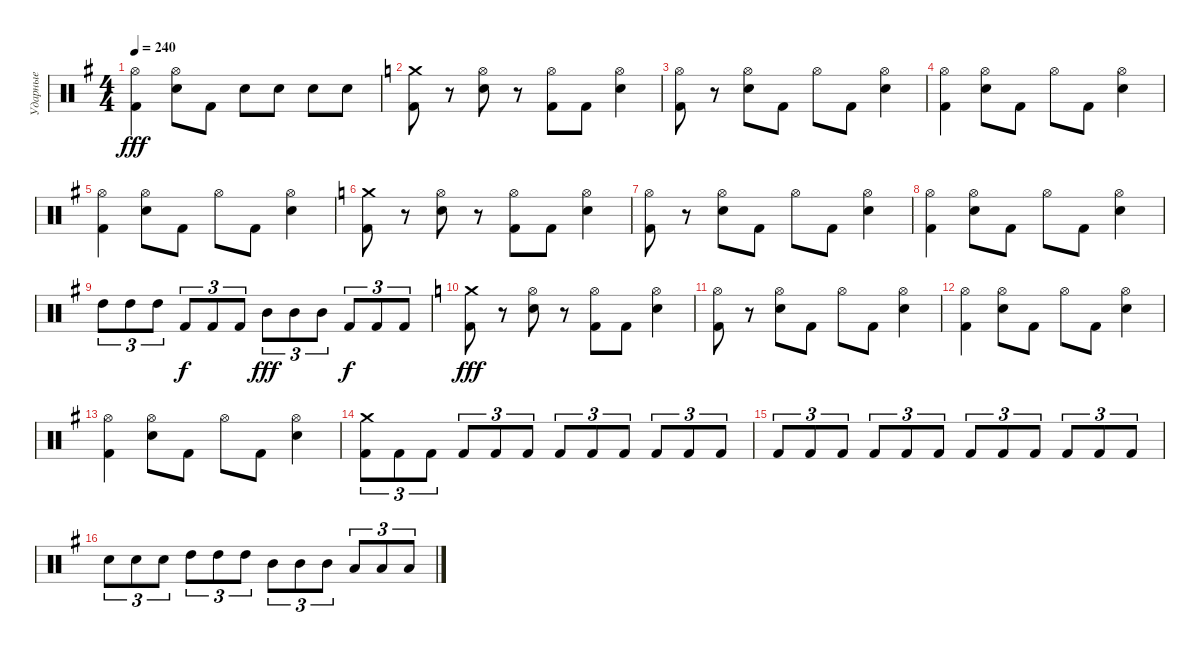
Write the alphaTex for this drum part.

\track ("Ударные" "Ударные") {instrument percussion}
\staff {score}
\articulation defaults
\ts (4 4)
\tempo 240
\clef neutral
\ks eminor
("Hi-Hat (open)" "Kick (hit) 2").4{dy fff} ("Hi-Hat (open)" "Electric Snare (hit)").8 "Kick (hit) 2".8 "Electric Snare (hit)".8 "Electric Snare (hit)".8 "Electric Snare (hit)".8 "Electric Snare (hit)".8 |
\ks c
("Crash medium (hit)" "Kick (hit) 2").8 r.8 ("Hi-Hat (open)" "Electric Snare (hit)").8 r.8 ("Hi-Hat (open)" "Kick (hit) 2").8 "Kick (hit) 2".8 ("Hi-Hat (open)" "Electric Snare (hit)").4 |
("Hi-Hat (open)" "Kick (hit) 2").8 r.8 ("Hi-Hat (open)" "Electric Snare (hit)").8 "Kick (hit) 2".8 "Hi-Hat (open)".8 "Kick (hit) 2".8 ("Hi-Hat (open)" "Electric Snare (hit)").4 |
("Hi-Hat (open)" "Kick (hit) 2").4 ("Hi-Hat (open)" "Electric Snare (hit)").8 "Kick (hit) 2".8 "Hi-Hat (open)".8 "Kick (hit) 2".8 ("Hi-Hat (open)" "Electric Snare (hit)").4 |
\ks eminor
("Hi-Hat (open)" "Kick (hit) 2").4 ("Hi-Hat (open)" "Electric Snare (hit)").8 "Kick (hit) 2".8 "Hi-Hat (open)".8 "Kick (hit) 2".8 ("Hi-Hat (open)" "Electric Snare (hit)").4 |
\ks c
("Crash medium (hit)" "Kick (hit) 2").8 r.8 ("Hi-Hat (open)" "Electric Snare (hit)").8 r.8 ("Hi-Hat (open)" "Kick (hit) 2").8 "Kick (hit) 2".8 ("Hi-Hat (open)" "Electric Snare (hit)").4 |
("Hi-Hat (open)" "Kick (hit) 2").8 r.8 ("Hi-Hat (open)" "Electric Snare (hit)").8 "Kick (hit) 2".8 "Hi-Hat (open)".8 "Kick (hit) 2".8 ("Hi-Hat (open)" "Electric Snare (hit)").4 |
("Hi-Hat (open)" "Kick (hit) 2").4 ("Hi-Hat (open)" "Electric Snare (hit)").8 "Kick (hit) 2".8 "Hi-Hat (open)".8 "Kick (hit) 2".8 ("Hi-Hat (open)" "Electric Snare (hit)").4 |
\ks eminor "High Tom (hit)".8{tu (3 2)} "High Tom (hit)".8{tu (3 2)} "High Tom (hit)".8{tu (3 2)} "Kick (hit) 2".8{tu (3 2) dy f} "Kick (hit) 2".8{tu (3 2)} "Kick (hit) 2".8{tu (3 2)} "Mid Tom (hit)".8{tu (3 2) dy fff} "Mid Tom (hit)".8{tu (3 2)} "Mid Tom (hit)".8{tu (3 2)} "Kick (hit) 2".8{tu (3 2) dy f} "Kick (hit) 2".8{tu (3 2)} "Kick (hit) 2".8{tu (3 2)}
|
\ks c
("Crash medium (hit)" "Kick (hit) 2").8{dy fff} r.8 ("Hi-Hat (open)" "Electric Snare (hit)").8 r.8 ("Hi-Hat (open)" "Kick (hit) 2").8 "Kick (hit) 2".8 ("Hi-Hat (open)" "Electric Snare (hit)").4 |
("Hi-Hat (open)" "Kick (hit) 2").8 r.8 ("Hi-Hat (open)" "Electric Snare (hit)").8 "Kick (hit) 2".8 "Hi-Hat (open)".8 "Kick (hit) 2".8 ("Hi-Hat (open)" "Electric Snare (hit)").4 |
("Hi-Hat (open)" "Kick (hit) 2").4 ("Hi-Hat (open)" "Electric Snare (hit)").8 "Kick (hit) 2".8 "Hi-Hat (open)".8 "Kick (hit) 2".8 ("Hi-Hat (open)" "Electric Snare (hit)").4 |
\ks eminor
("Hi-Hat (open)" "Kick (hit) 2").4 ("Hi-Hat (open)" "Electric Snare (hit)").8 "Kick (hit) 2".8 "Hi-Hat (open)".8 "Kick (hit) 2".8 ("Hi-Hat (open)" "Electric Snare (hit)").4 |
("Crash medium (hit)" "Kick (hit) 2").8{tu (3 2)} "Kick (hit) 2".8{tu (3 2)} "Kick (hit) 2".8{tu (3 2)} "Kick (hit) 2".8{tu (3 2)} "Kick (hit) 2".8{tu (3 2)} "Kick (hit) 2".8{tu (3 2)} "Kick (hit) 2".8{tu (3 2)} "Kick (hit) 2".8{tu (3 2)} "Kick (hit) 2".8{tu (3 2)} "Kick (hit) 2".8{tu (3 2)} "Kick (hit) 2".8{tu (3 2)} "Kick (hit) 2".8{tu (3 2)} |
"Kick (hit) 2".8{tu (3 2)} "Kick (hit) 2".8{tu (3 2)} "Kick (hit) 2".8{tu (3 2)} "Kick (hit) 2".8{tu (3 2)} "Kick (hit) 2".8{tu (3 2)} "Kick (hit) 2".8{tu (3 2)} "Kick (hit) 2".8{tu (3 2)} "Kick (hit) 2".8{tu (3 2)} "Kick (hit) 2".8{tu (3 2)} "Kick (hit) 2".8{tu (3 2)} "Kick (hit) 2".8{tu (3 2)} "Kick (hit) 2".8{tu (3 2)} |
"Electric Snare (hit)".8{tu (3 2)} "Electric Snare (hit)".8{tu (3 2)} "Electric Snare (hit)".8{tu (3 2)} "High Tom (hit)".8{tu (3 2)} "High Tom (hit)".8{tu (3 2)} "High Tom (hit)".8{tu (3 2)} "Mid Tom (hit)".8{tu (3 2)} "Mid Tom (hit)".8{tu (3 2)} "Mid Tom (hit)".8{tu (3 2)} "Low Tom (hit)".8{tu (3 2)} "Low Tom (hit)".8{tu (3 2)} "Low Tom (hit)".8{tu (3 2)}
